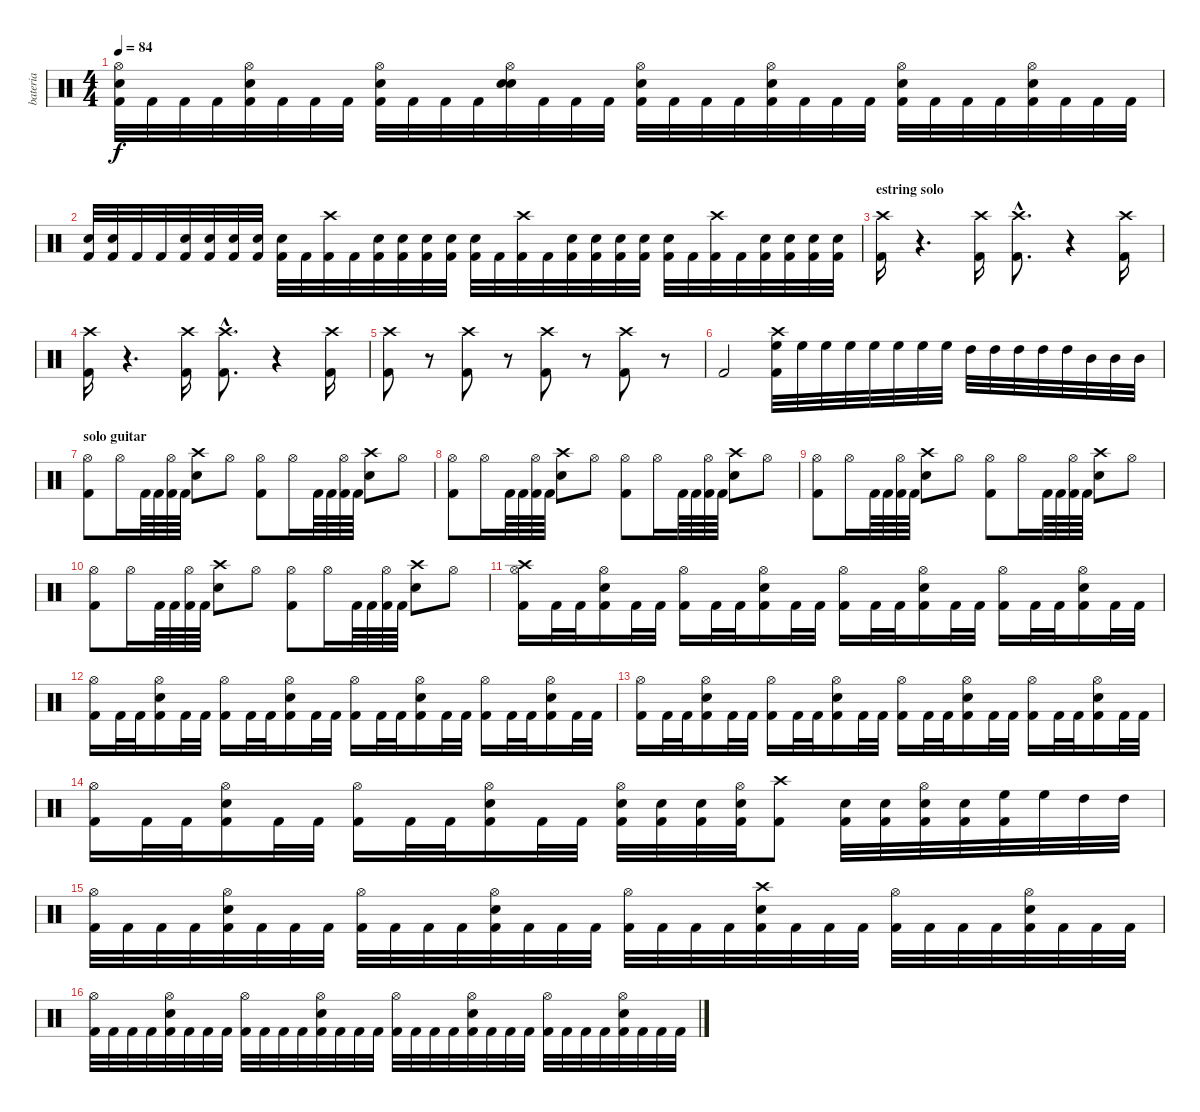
\track ("bateria" "bateria") {instrument percussion}
\staff {score}
\articulation defaults
\ts (4 4)
\tempo 84
\clef neutral
\ks c
("Kick (hit) 2" "Electric Snare (hit)" "Hi-Hat (open)").32{dy f} "Kick (hit) 2".32 "Kick (hit) 2".32 "Kick (hit) 2".32 ("Kick (hit) 2" "Electric Snare (hit)" "Hi-Hat (open)").32 "Kick (hit) 2".32 "Kick (hit) 2".32 "Kick (hit) 2".32 ("Kick (hit) 2" "Electric Snare (hit)" "Hi-Hat (open)").32 "Kick (hit) 2".32 "Kick (hit) 2".32 "Kick (hit) 2".32 ("Snare (hit)" "Electric Snare (hit)" "Hi-Hat (open)").32 "Kick (hit) 2".32 "Kick (hit) 2".32 "Kick (hit) 2".32 ("Kick (hit) 2" "Electric Snare (hit)" "Hi-Hat (open)").32 "Kick (hit) 2".32 "Kick (hit) 2".32 "Kick (hit) 2".32 ("Kick (hit) 2" "Electric Snare (hit)" "Hi-Hat (open)").32 "Kick (hit) 2".32 "Kick (hit) 2".32 "Kick (hit) 2".32 ("Kick (hit) 2" "Electric Snare (hit)" "Hi-Hat (open)").32 "Kick (hit) 2".32 "Kick (hit) 2".32 "Kick (hit) 2".32 ("Kick (hit) 2" "Electric Snare (hit)" "Hi-Hat (open)").32 "Kick (hit) 2".32 "Kick (hit) 2".32 "Kick (hit) 2".32 |
("Kick (hit) 2" "Electric Snare (hit)").32 ("Kick (hit) 2" "Electric Snare (hit)").32 "Kick (hit) 2".32 "Kick (hit) 2".32 ("Kick (hit) 2" "Electric Snare (hit)").32 ("Kick (hit) 2" "Electric Snare (hit)").32 ("Kick (hit) 2" "Electric Snare (hit)").32 ("Kick (hit) 2" "Electric Snare (hit)").32 ("Kick (hit) 2" "Electric Snare (hit)").32 "Kick (hit) 2".32 ("Kick (hit) 2" "Crash high (hit)").32 "Kick (hit) 2".32 ("Kick (hit) 2" "Electric Snare (hit)").32 ("Kick (hit) 2" "Electric Snare (hit)").32 ("Kick (hit) 2" "Electric Snare (hit)").32 ("Kick (hit) 2" "Electric Snare (hit)").32 ("Kick (hit) 2" "Electric Snare (hit)").32 "Kick (hit) 2".32 ("Kick (hit) 2" "Crash high (hit)").32 "Kick (hit) 2".32 ("Kick (hit) 2" "Electric Snare (hit)").32 ("Kick (hit) 2" "Electric Snare (hit)").32 ("Kick (hit) 2" "Electric Snare (hit)").32 ("Kick (hit) 2" "Electric Snare (hit)").32 ("Kick (hit) 2" "Electric Snare (hit)").32 "Kick (hit) 2".32 ("Kick (hit) 2" "Crash high (hit)").32 "Kick (hit) 2".32 ("Kick (hit) 2" "Electric Snare (hit)").32 ("Kick (hit) 2" "Electric Snare (hit)").32 ("Kick (hit) 2" "Electric Snare (hit)").32 ("Kick (hit) 2" "Electric Snare (hit)").32 |
\section ("" "estring solo")
("Kick (hit) 2" "Crash high (hit)").16 r.4{d} ("Kick (hit) 2" "Crash high (hit)").16 ("Kick (hit) 2"{hac} "Crash high (hit)"{hac}).8{d} r.4 ("Kick (hit) 2" "Crash high (hit)").16 |
("Kick (hit) 2" "Crash high (hit)").16 r.4{d} ("Kick (hit) 2" "Crash high (hit)").16 ("Kick (hit) 2"{hac} "Crash high (hit)"{hac}).8{d} r.4 ("Kick (hit) 2" "Crash high (hit)").16 |
("Kick (hit) 2" "Crash high (hit)").8 r.8 ("Kick (hit) 2" "Crash high (hit)").8 r.8 ("Kick (hit) 2" "Crash high (hit)").8 r.8 ("Kick (hit) 2" "Crash high (hit)").8 r.8 |
"Kick (hit) 2".2 ("Kick (hit) 2" "High Floor Tom (hit)" "Crash high (hit)").32 "High Floor Tom (hit)".32 "High Floor Tom (hit)".32 "High Floor Tom (hit)".32 "High Floor Tom (hit)".32 "High Floor Tom (hit)".32 "High Floor Tom (hit)".32 "High Floor Tom (hit)".32 "High Tom (hit)".32 "High Tom (hit)".32 "High Tom (hit)".32 "High Tom (hit)".32 "High Tom (hit)".32 "Mid Tom (hit)".32 "Mid Tom (hit)".32 "Mid Tom (hit)".32 |
\section ("" "solo guitar")
("Kick (hit) 2" "Hi-Hat (open)").8 "Hi-Hat (open)".16 "Kick (hit) 2".64 "Kick (hit) 2".64 ("Kick (hit) 2" "Hi-Hat (open)").64 "Kick (hit) 2".64 ("Crash high (hit)" "Electric Snare (hit)").8 "Hi-Hat (open)".8 ("Kick (hit) 2" "Hi-Hat (open)").8 "Hi-Hat (open)".16 "Kick (hit) 2".64 "Kick (hit) 2".64 ("Kick (hit) 2" "Hi-Hat (open)").64 "Kick (hit) 2".64 ("Crash high (hit)" "Electric Snare (hit)").8 "Hi-Hat (open)".8 |
("Kick (hit) 2" "Hi-Hat (open)").8 "Hi-Hat (open)".16 "Kick (hit) 2".64 "Kick (hit) 2".64 ("Kick (hit) 2" "Hi-Hat (open)").64 "Kick (hit) 2".64 ("Crash high (hit)" "Electric Snare (hit)").8 "Hi-Hat (open)".8 ("Kick (hit) 2" "Hi-Hat (open)").8 "Hi-Hat (open)".16 "Kick (hit) 2".64 "Kick (hit) 2".64 ("Kick (hit) 2" "Hi-Hat (open)").64 "Kick (hit) 2".64 ("Crash high (hit)" "Electric Snare (hit)").8 "Hi-Hat (open)".8 |
("Kick (hit) 2" "Hi-Hat (open)").8 "Hi-Hat (open)".16 "Kick (hit) 2".64 "Kick (hit) 2".64 ("Kick (hit) 2" "Hi-Hat (open)").64 "Kick (hit) 2".64 ("Crash high (hit)" "Electric Snare (hit)").8 "Hi-Hat (open)".8 ("Kick (hit) 2" "Hi-Hat (open)").8 "Hi-Hat (open)".16 "Kick (hit) 2".64 "Kick (hit) 2".64 ("Kick (hit) 2" "Hi-Hat (open)").64 "Kick (hit) 2".64 ("Crash high (hit)" "Electric Snare (hit)").8 "Hi-Hat (open)".8 |
("Kick (hit) 2" "Hi-Hat (open)").8 "Hi-Hat (open)".16 "Kick (hit) 2".64 "Kick (hit) 2".64 ("Kick (hit) 2" "Hi-Hat (open)").64 "Kick (hit) 2".64 ("Crash high (hit)" "Electric Snare (hit)").8 "Hi-Hat (open)".8 ("Kick (hit) 2" "Hi-Hat (open)").8 "Hi-Hat (open)".16 "Kick (hit) 2".64 "Kick (hit) 2".64 ("Kick (hit) 2" "Hi-Hat (open)").64 "Kick (hit) 2".64 ("Crash high (hit)" "Electric Snare (hit)").8 "Hi-Hat (open)".8 |
("Kick (hit) 2" "Crash high (hit)" "Hi-Hat (open)").16 "Kick (hit) 2".32 "Kick (hit) 2".32 ("Kick (hit) 2" "Electric Snare (hit)" "Hi-Hat (open)").16 "Kick (hit) 2".32 "Kick (hit) 2".32 ("Kick (hit) 2" "Hi-Hat (open)").16 "Kick (hit) 2".32 "Kick (hit) 2".32 ("Kick (hit) 2" "Electric Snare (hit)" "Hi-Hat (open)").16 "Kick (hit) 2".32 "Kick (hit) 2".32 ("Kick (hit) 2" "Hi-Hat (open)").16 "Kick (hit) 2".32 "Kick (hit) 2".32 ("Kick (hit) 2" "Electric Snare (hit)" "Hi-Hat (open)").16 "Kick (hit) 2".32 "Kick (hit) 2".32 ("Kick (hit) 2" "Hi-Hat (open)").16 "Kick (hit) 2".32 "Kick (hit) 2".32 ("Kick (hit) 2" "Electric Snare (hit)" "Hi-Hat (open)").16 "Kick (hit) 2".32 "Kick (hit) 2".32 |
("Kick (hit) 2" "Hi-Hat (open)").16 "Kick (hit) 2".32 "Kick (hit) 2".32 ("Kick (hit) 2" "Electric Snare (hit)" "Hi-Hat (open)").16 "Kick (hit) 2".32 "Kick (hit) 2".32 ("Kick (hit) 2" "Hi-Hat (open)").16 "Kick (hit) 2".32 "Kick (hit) 2".32 ("Kick (hit) 2" "Electric Snare (hit)" "Hi-Hat (open)").16 "Kick (hit) 2".32 "Kick (hit) 2".32 ("Kick (hit) 2" "Hi-Hat (open)").16 "Kick (hit) 2".32 "Kick (hit) 2".32 ("Kick (hit) 2" "Electric Snare (hit)" "Hi-Hat (open)").16 "Kick (hit) 2".32 "Kick (hit) 2".32 ("Kick (hit) 2" "Hi-Hat (open)").16 "Kick (hit) 2".32 "Kick (hit) 2".32 ("Kick (hit) 2" "Electric Snare (hit)" "Hi-Hat (open)").16 "Kick (hit) 2".32 "Kick (hit) 2".32 |
("Kick (hit) 2" "Hi-Hat (open)").16 "Kick (hit) 2".32 "Kick (hit) 2".32 ("Kick (hit) 2" "Electric Snare (hit)" "Hi-Hat (open)").16 "Kick (hit) 2".32 "Kick (hit) 2".32 ("Kick (hit) 2" "Hi-Hat (open)").16 "Kick (hit) 2".32 "Kick (hit) 2".32 ("Kick (hit) 2" "Electric Snare (hit)" "Hi-Hat (open)").16 "Kick (hit) 2".32 "Kick (hit) 2".32 ("Kick (hit) 2" "Hi-Hat (open)").16 "Kick (hit) 2".32 "Kick (hit) 2".32 ("Kick (hit) 2" "Electric Snare (hit)" "Hi-Hat (open)").16 "Kick (hit) 2".32 "Kick (hit) 2".32 ("Kick (hit) 2" "Hi-Hat (open)").16 "Kick (hit) 2".32 "Kick (hit) 2".32 ("Kick (hit) 2" "Electric Snare (hit)" "Hi-Hat (open)").16 "Kick (hit) 2".32 "Kick (hit) 2".32 |
("Kick (hit) 2" "Hi-Hat (open)").16 "Kick (hit) 2".32 "Kick (hit) 2".32 ("Kick (hit) 2" "Electric Snare (hit)" "Hi-Hat (open)").16 "Kick (hit) 2".32 "Kick (hit) 2".32 ("Kick (hit) 2" "Hi-Hat (open)").16 "Kick (hit) 2".32 "Kick (hit) 2".32 ("Kick (hit) 2" "Electric Snare (hit)" "Hi-Hat (open)").16 "Kick (hit) 2".32 "Kick (hit) 2".32 ("Kick (hit) 2" "Electric Snare (hit)" "Hi-Hat (open)").32 ("Kick (hit) 2" "Electric Snare (hit)").32 ("Kick (hit) 2" "Electric Snare (hit)").32 ("Kick (hit) 2" "Electric Snare (hit)" "Hi-Hat (open)").32 ("Kick (hit) 2" "Crash high (hit)").8 ("Kick (hit) 2" "Electric Snare (hit)").32 ("Kick (hit) 2" "Electric Snare (hit)").32 ("Kick (hit) 2" "Electric Snare (hit)" "Hi-Hat (open)").32 ("Kick (hit) 2" "Electric Snare (hit)").32 ("Kick (hit) 2" "High Floor Tom (hit)").32 "High Floor Tom (hit)".32 "High Tom (hit)".32 "High Tom (hit)".32 |
("Kick (hit) 2" "Hi-Hat (open)").32 "Kick (hit) 2".32 "Kick (hit) 2".32 "Kick (hit) 2".32 ("Kick (hit) 2" "Electric Snare (hit)" "Hi-Hat (open)").32 "Kick (hit) 2".32 "Kick (hit) 2".32 "Kick (hit) 2".32 ("Kick (hit) 2" "Hi-Hat (open)").32 "Kick (hit) 2".32 "Kick (hit) 2".32 "Kick (hit) 2".32 ("Kick (hit) 2" "Electric Snare (hit)" "Hi-Hat (open)").32 "Kick (hit) 2".32 "Kick (hit) 2".32 "Kick (hit) 2".32 ("Kick (hit) 2" "Hi-Hat (open)").32 "Kick (hit) 2".32 "Kick (hit) 2".32 "Kick (hit) 2".32 ("Kick (hit) 2" "Electric Snare (hit)" "Crash high (hit)").32 "Kick (hit) 2".32 "Kick (hit) 2".32 "Kick (hit) 2".32 ("Kick (hit) 2" "Hi-Hat (open)").32 "Kick (hit) 2".32 "Kick (hit) 2".32 "Kick (hit) 2".32 ("Kick (hit) 2" "Electric Snare (hit)" "Hi-Hat (open)").32 "Kick (hit) 2".32 "Kick (hit) 2".32 "Kick (hit) 2".32 |
("Kick (hit) 2" "Hi-Hat (open)").32 "Kick (hit) 2".32 "Kick (hit) 2".32 "Kick (hit) 2".32 ("Kick (hit) 2" "Electric Snare (hit)" "Hi-Hat (open)").32 "Kick (hit) 2".32 "Kick (hit) 2".32 "Kick (hit) 2".32 ("Kick (hit) 2" "Hi-Hat (open)").32 "Kick (hit) 2".32 "Kick (hit) 2".32 "Kick (hit) 2".32 ("Kick (hit) 2" "Electric Snare (hit)" "Hi-Hat (open)").32 "Kick (hit) 2".32 "Kick (hit) 2".32 "Kick (hit) 2".32 ("Kick (hit) 2" "Hi-Hat (open)").32 "Kick (hit) 2".32 "Kick (hit) 2".32 "Kick (hit) 2".32 ("Kick (hit) 2" "Electric Snare (hit)" "Hi-Hat (open)").32 "Kick (hit) 2".32 "Kick (hit) 2".32 "Kick (hit) 2".32 ("Kick (hit) 2" "Hi-Hat (open)").32 "Kick (hit) 2".32 "Kick (hit) 2".32 "Kick (hit) 2".32 ("Kick (hit) 2" "Electric Snare (hit)" "Hi-Hat (open)").32 "Kick (hit) 2".32 "Kick (hit) 2".32 "Kick (hit) 2".32
